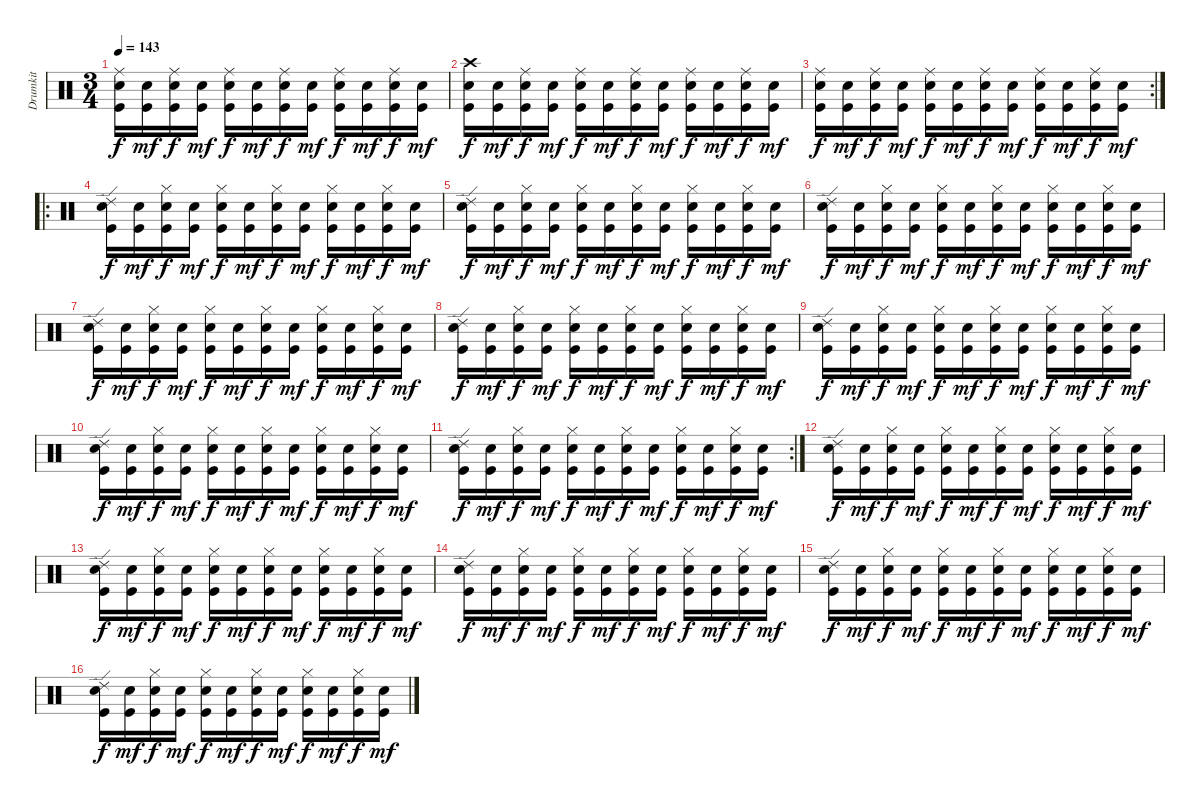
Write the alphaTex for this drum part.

\track ("Drumkit" "Drumkit") {instrument percussion}
\staff {score}
\articulation defaults
\ts (3 4)
\tempo 143
\clef neutral
\ks c
("Kick (hit)" "Snare (hit) 2" "Ride (middle)").16{dy f} ("Snare (hit) 2" "Kick (hit)").16{dy mf} ("Kick (hit)" "Snare (hit) 2" "Ride (middle)").16{dy f} ("Snare (hit) 2" "Kick (hit)").16{dy mf} ("Kick (hit)" "Snare (hit) 2" "Ride (middle)").16{dy f} ("Snare (hit) 2" "Kick (hit)").16{dy mf} ("Kick (hit)" "Snare (hit) 2" "Ride (middle)").16{dy f} ("Snare (hit) 2" "Kick (hit)").16{dy mf} ("Kick (hit)" "Snare (hit) 2" "Ride (middle)").16{dy f} ("Snare (hit) 2" "Kick (hit)").16{dy mf} ("Kick (hit)" "Snare (hit) 2" "Ride (middle)").16{dy f} ("Snare (hit) 2" "Kick (hit)").16{dy mf} |
("Kick (hit)" "Snare (hit) 2" "Crash high (hit)").16{dy f} ("Snare (hit) 2" "Kick (hit)").16{dy mf} ("Kick (hit)" "Snare (hit) 2" "Ride (middle)").16{dy f} ("Snare (hit) 2" "Kick (hit)").16{dy mf} ("Kick (hit)" "Snare (hit) 2" "Ride (middle)").16{dy f} ("Snare (hit) 2" "Kick (hit)").16{dy mf} ("Kick (hit)" "Snare (hit) 2" "Ride (middle)").16{dy f} ("Snare (hit) 2" "Kick (hit)").16{dy mf} ("Kick (hit)" "Snare (hit) 2" "Ride (middle)").16{dy f} ("Snare (hit) 2" "Kick (hit)").16{dy mf} ("Kick (hit)" "Snare (hit) 2" "Ride (middle)").16{dy f} ("Snare (hit) 2" "Kick (hit)").16{dy mf} |
\rc 2
("Kick (hit)" "Snare (hit) 2" "Ride (middle)").16{dy f} ("Snare (hit) 2" "Kick (hit)").16{dy mf} ("Kick (hit)" "Snare (hit) 2" "Ride (middle)").16{dy f} ("Snare (hit) 2" "Kick (hit)").16{dy mf} ("Kick (hit)" "Snare (hit) 2" "Ride (middle)").16{dy f} ("Snare (hit) 2" "Kick (hit)").16{dy mf} ("Kick (hit)" "Snare (hit) 2" "Ride (middle)").16{dy f} ("Snare (hit) 2" "Kick (hit)").16{dy mf} ("Kick (hit)" "Snare (hit) 2" "Ride (middle)").16{dy f} ("Snare (hit) 2" "Kick (hit)").16{dy mf} ("Kick (hit)" "Snare (hit) 2" "Ride (middle)").16{dy f} ("Snare (hit) 2" "Kick (hit)").16{dy mf} |
\ro
("Kick (hit)" "Snare (hit) 2" "Ride (edge) 2").16{dy f} ("Snare (hit) 2" "Kick (hit)").16{dy mf} ("Kick (hit)" "Snare (hit) 2" "Hi-Hat (closed)").16{dy f} ("Snare (hit) 2" "Kick (hit)").16{dy mf} ("Kick (hit)" "Snare (hit) 2" "Hi-Hat (closed)").16{dy f} ("Snare (hit) 2" "Kick (hit)").16{dy mf} ("Kick (hit)" "Snare (hit) 2" "Hi-Hat (closed)").16{dy f} ("Snare (hit) 2" "Kick (hit)").16{dy mf} ("Kick (hit)" "Snare (hit) 2" "Hi-Hat (closed)").16{dy f} ("Snare (hit) 2" "Kick (hit)").16{dy mf} ("Kick (hit)" "Snare (hit) 2" "Hi-Hat (closed)").16{dy f} ("Snare (hit) 2" "Kick (hit)").16{dy mf} |
("Kick (hit)" "Snare (hit) 2" "Ride (edge) 2").16{dy f} ("Snare (hit) 2" "Kick (hit)").16{dy mf} ("Kick (hit)" "Snare (hit) 2" "Hi-Hat (closed)").16{dy f} ("Snare (hit) 2" "Kick (hit)").16{dy mf} ("Kick (hit)" "Snare (hit) 2" "Hi-Hat (closed)").16{dy f} ("Snare (hit) 2" "Kick (hit)").16{dy mf} ("Kick (hit)" "Snare (hit) 2" "Hi-Hat (closed)").16{dy f} ("Snare (hit) 2" "Kick (hit)").16{dy mf} ("Kick (hit)" "Snare (hit) 2" "Hi-Hat (closed)").16{dy f} ("Snare (hit) 2" "Kick (hit)").16{dy mf} ("Kick (hit)" "Snare (hit) 2" "Hi-Hat (closed)").16{dy f} ("Snare (hit) 2" "Kick (hit)").16{dy mf} |
("Kick (hit)" "Snare (hit) 2" "Ride (edge) 2").16{dy f} ("Snare (hit) 2" "Kick (hit)").16{dy mf} ("Kick (hit)" "Snare (hit) 2" "Hi-Hat (closed)").16{dy f} ("Snare (hit) 2" "Kick (hit)").16{dy mf} ("Kick (hit)" "Snare (hit) 2" "Hi-Hat (closed)").16{dy f} ("Snare (hit) 2" "Kick (hit)").16{dy mf} ("Kick (hit)" "Snare (hit) 2" "Hi-Hat (closed)").16{dy f} ("Snare (hit) 2" "Kick (hit)").16{dy mf} ("Kick (hit)" "Snare (hit) 2" "Hi-Hat (closed)").16{dy f} ("Snare (hit) 2" "Kick (hit)").16{dy mf} ("Kick (hit)" "Snare (hit) 2" "Hi-Hat (closed)").16{dy f} ("Snare (hit) 2" "Kick (hit)").16{dy mf} |
("Kick (hit)" "Snare (hit) 2" "Ride (edge) 2").16{dy f} ("Snare (hit) 2" "Kick (hit)").16{dy mf} ("Kick (hit)" "Snare (hit) 2" "Hi-Hat (closed)").16{dy f} ("Snare (hit) 2" "Kick (hit)").16{dy mf} ("Kick (hit)" "Snare (hit) 2" "Hi-Hat (closed)").16{dy f} ("Snare (hit) 2" "Kick (hit)").16{dy mf} ("Kick (hit)" "Snare (hit) 2" "Hi-Hat (closed)").16{dy f} ("Snare (hit) 2" "Kick (hit)").16{dy mf} ("Kick (hit)" "Snare (hit) 2" "Hi-Hat (closed)").16{dy f} ("Snare (hit) 2" "Kick (hit)").16{dy mf} ("Kick (hit)" "Snare (hit) 2" "Hi-Hat (closed)").16{dy f} ("Snare (hit) 2" "Kick (hit)").16{dy mf} |
("Kick (hit)" "Snare (hit) 2" "Ride (edge) 2").16{dy f} ("Snare (hit) 2" "Kick (hit)").16{dy mf} ("Kick (hit)" "Snare (hit) 2" "Hi-Hat (closed)").16{dy f} ("Snare (hit) 2" "Kick (hit)").16{dy mf} ("Kick (hit)" "Snare (hit) 2" "Hi-Hat (closed)").16{dy f} ("Snare (hit) 2" "Kick (hit)").16{dy mf} ("Kick (hit)" "Snare (hit) 2" "Hi-Hat (closed)").16{dy f} ("Snare (hit) 2" "Kick (hit)").16{dy mf} ("Kick (hit)" "Snare (hit) 2" "Hi-Hat (closed)").16{dy f} ("Snare (hit) 2" "Kick (hit)").16{dy mf} ("Kick (hit)" "Snare (hit) 2" "Hi-Hat (closed)").16{dy f} ("Snare (hit) 2" "Kick (hit)").16{dy mf} |
("Kick (hit)" "Snare (hit) 2" "Ride (edge) 2").16{dy f} ("Snare (hit) 2" "Kick (hit)").16{dy mf} ("Kick (hit)" "Snare (hit) 2" "Hi-Hat (closed)").16{dy f} ("Snare (hit) 2" "Kick (hit)").16{dy mf} ("Kick (hit)" "Snare (hit) 2" "Hi-Hat (closed)").16{dy f} ("Snare (hit) 2" "Kick (hit)").16{dy mf} ("Kick (hit)" "Snare (hit) 2" "Hi-Hat (closed)").16{dy f} ("Snare (hit) 2" "Kick (hit)").16{dy mf} ("Kick (hit)" "Snare (hit) 2" "Hi-Hat (closed)").16{dy f} ("Snare (hit) 2" "Kick (hit)").16{dy mf} ("Kick (hit)" "Snare (hit) 2" "Hi-Hat (closed)").16{dy f} ("Snare (hit) 2" "Kick (hit)").16{dy mf} |
("Kick (hit)" "Snare (hit) 2" "Ride (edge) 2").16{dy f} ("Snare (hit) 2" "Kick (hit)").16{dy mf} ("Kick (hit)" "Snare (hit) 2" "Hi-Hat (closed)").16{dy f} ("Snare (hit) 2" "Kick (hit)").16{dy mf} ("Kick (hit)" "Snare (hit) 2" "Hi-Hat (closed)").16{dy f} ("Snare (hit) 2" "Kick (hit)").16{dy mf} ("Kick (hit)" "Snare (hit) 2" "Hi-Hat (closed)").16{dy f} ("Snare (hit) 2" "Kick (hit)").16{dy mf} ("Kick (hit)" "Snare (hit) 2" "Hi-Hat (closed)").16{dy f} ("Snare (hit) 2" "Kick (hit)").16{dy mf} ("Kick (hit)" "Snare (hit) 2" "Hi-Hat (closed)").16{dy f} ("Snare (hit) 2" "Kick (hit)").16{dy mf} |
\rc 2
("Kick (hit)" "Snare (hit) 2" "Ride (edge) 2").16{dy f} ("Snare (hit) 2" "Kick (hit)").16{dy mf} ("Kick (hit)" "Snare (hit) 2" "Hi-Hat (closed)").16{dy f} ("Snare (hit) 2" "Kick (hit)").16{dy mf} ("Kick (hit)" "Snare (hit) 2" "Hi-Hat (closed)").16{dy f} ("Snare (hit) 2" "Kick (hit)").16{dy mf} ("Kick (hit)" "Snare (hit) 2" "Hi-Hat (closed)").16{dy f} ("Snare (hit) 2" "Kick (hit)").16{dy mf} ("Kick (hit)" "Snare (hit) 2" "Hi-Hat (closed)").16{dy f} ("Snare (hit) 2" "Kick (hit)").16{dy mf} ("Kick (hit)" "Snare (hit) 2" "Hi-Hat (closed)").16{dy f} ("Snare (hit) 2" "Kick (hit)").16{dy mf} |
("Kick (hit)" "Snare (hit) 2" "Ride (edge) 2").16{dy f} ("Snare (hit) 2" "Kick (hit)").16{dy mf} ("Kick (hit)" "Snare (hit) 2" "Hi-Hat (closed)").16{dy f} ("Snare (hit) 2" "Kick (hit)").16{dy mf} ("Kick (hit)" "Snare (hit) 2" "Hi-Hat (closed)").16{dy f} ("Snare (hit) 2" "Kick (hit)").16{dy mf} ("Kick (hit)" "Snare (hit) 2" "Hi-Hat (closed)").16{dy f} ("Snare (hit) 2" "Kick (hit)").16{dy mf} ("Kick (hit)" "Snare (hit) 2" "Hi-Hat (closed)").16{dy f} ("Snare (hit) 2" "Kick (hit)").16{dy mf} ("Kick (hit)" "Snare (hit) 2" "Hi-Hat (closed)").16{dy f} ("Snare (hit) 2" "Kick (hit)").16{dy mf} |
("Kick (hit)" "Snare (hit) 2" "Ride (edge) 2").16{dy f} ("Snare (hit) 2" "Kick (hit)").16{dy mf} ("Kick (hit)" "Snare (hit) 2" "Hi-Hat (closed)").16{dy f} ("Snare (hit) 2" "Kick (hit)").16{dy mf} ("Kick (hit)" "Snare (hit) 2" "Hi-Hat (closed)").16{dy f} ("Snare (hit) 2" "Kick (hit)").16{dy mf} ("Kick (hit)" "Snare (hit) 2" "Hi-Hat (closed)").16{dy f} ("Snare (hit) 2" "Kick (hit)").16{dy mf} ("Kick (hit)" "Snare (hit) 2" "Hi-Hat (closed)").16{dy f} ("Snare (hit) 2" "Kick (hit)").16{dy mf} ("Kick (hit)" "Snare (hit) 2" "Hi-Hat (closed)").16{dy f} ("Snare (hit) 2" "Kick (hit)").16{dy mf} |
("Kick (hit)" "Snare (hit) 2" "Ride (edge) 2").16{dy f} ("Snare (hit) 2" "Kick (hit)").16{dy mf} ("Kick (hit)" "Snare (hit) 2" "Hi-Hat (closed)").16{dy f} ("Snare (hit) 2" "Kick (hit)").16{dy mf} ("Kick (hit)" "Snare (hit) 2" "Hi-Hat (closed)").16{dy f} ("Snare (hit) 2" "Kick (hit)").16{dy mf} ("Kick (hit)" "Snare (hit) 2" "Hi-Hat (closed)").16{dy f} ("Snare (hit) 2" "Kick (hit)").16{dy mf} ("Kick (hit)" "Snare (hit) 2" "Hi-Hat (closed)").16{dy f} ("Snare (hit) 2" "Kick (hit)").16{dy mf} ("Kick (hit)" "Snare (hit) 2" "Hi-Hat (closed)").16{dy f} ("Snare (hit) 2" "Kick (hit)").16{dy mf} |
("Kick (hit)" "Snare (hit) 2" "Ride (edge) 2").16{dy f} ("Snare (hit) 2" "Kick (hit)").16{dy mf} ("Kick (hit)" "Snare (hit) 2" "Hi-Hat (closed)").16{dy f} ("Snare (hit) 2" "Kick (hit)").16{dy mf} ("Kick (hit)" "Snare (hit) 2" "Hi-Hat (closed)").16{dy f} ("Snare (hit) 2" "Kick (hit)").16{dy mf} ("Kick (hit)" "Snare (hit) 2" "Hi-Hat (closed)").16{dy f} ("Snare (hit) 2" "Kick (hit)").16{dy mf} ("Kick (hit)" "Snare (hit) 2" "Hi-Hat (closed)").16{dy f} ("Snare (hit) 2" "Kick (hit)").16{dy mf} ("Kick (hit)" "Snare (hit) 2" "Hi-Hat (closed)").16{dy f} ("Snare (hit) 2" "Kick (hit)").16{dy mf} |
("Kick (hit)" "Snare (hit) 2" "Ride (edge) 2").16{dy f} ("Snare (hit) 2" "Kick (hit)").16{dy mf} ("Kick (hit)" "Snare (hit) 2" "Hi-Hat (closed)").16{dy f} ("Snare (hit) 2" "Kick (hit)").16{dy mf} ("Kick (hit)" "Snare (hit) 2" "Hi-Hat (closed)").16{dy f} ("Snare (hit) 2" "Kick (hit)").16{dy mf} ("Kick (hit)" "Snare (hit) 2" "Hi-Hat (closed)").16{dy f} ("Snare (hit) 2" "Kick (hit)").16{dy mf} ("Kick (hit)" "Snare (hit) 2" "Hi-Hat (closed)").16{dy f} ("Snare (hit) 2" "Kick (hit)").16{dy mf} ("Kick (hit)" "Snare (hit) 2" "Hi-Hat (closed)").16{dy f} ("Snare (hit) 2" "Kick (hit)").16{dy mf}
